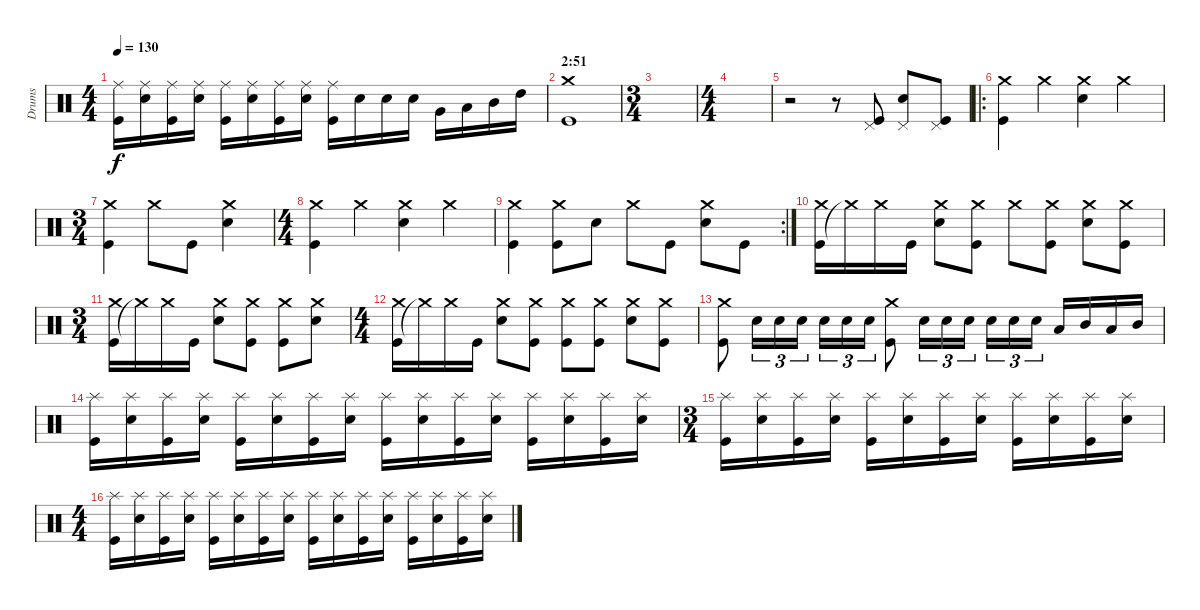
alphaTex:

\track ("Drums" "Drums") {instrument percussion}
\staff {score}
\articulation defaults
\ts (4 4)
\tempo 130
\clef neutral
\ks c
("Kick (hit)" "Ride (middle)").16{dy f} ("Electric Snare (hit)" "Ride (middle)").16 ("Kick (hit)" "Ride (middle)").16 ("Electric Snare (hit)" "Ride (middle)").16 ("Kick (hit)" "Ride (middle)").16 ("Electric Snare (hit)" "Ride (middle)").16 ("Kick (hit)" "Ride (middle)").16 ("Electric Snare (hit)" "Ride (middle)").16 ("Kick (hit)" "Ride (middle)").16 "Electric Snare (hit)".16 "Electric Snare (hit)".16 "Electric Snare (hit)".16 "Very Low Tom (hit)".16 "Low Tom (hit)".16 "Mid Tom (hit)".16 "High Tom (hit)".16 |
\section ("" "2:51")
("Kick (hit)" "Crash medium (hit)").1 |
\ts (3 4)
|
\ts (4 4)
|
r.2 r.8 ("Kick (hit)" "Pedal Hi-Hat (hit)").8 ("Electric Snare (hit)" "Pedal Hi-Hat (hit)").8 ("Kick (hit)" "Pedal Hi-Hat (hit)").8 |
\ro
("Kick (hit)" "Crash medium (hit)").4 "Crash medium (hit)".4 ("Electric Snare (hit)" "Crash medium (hit)").4 "Crash medium (hit)".4 |
\ts (3 4)
("Kick (hit)" "Crash medium (hit)").4 "Crash medium (hit)".8 "Kick (hit)".8 ("Electric Snare (hit)" "Crash medium (hit)").4 |
\ts (4 4)
("Kick (hit)" "Crash medium (hit)").4 "Crash medium (hit)".4 ("Electric Snare (hit)" "Crash medium (hit)").4 "Crash medium (hit)".4 |
\rc 2
("Kick (hit)" "Crash medium (hit)").4 ("Kick (hit)" "Crash medium (hit)").8 "Electric Snare (hit)".8 "Crash medium (hit)".8 "Kick (hit)".8 ("Electric Snare (hit)" "Crash medium (hit)").8 "Kick (hit)".8 |
("Kick (hit)" "Crash medium (hit)").16 "Crash medium (hit)"{t}.16 "Crash medium (hit)".16 "Kick (hit)".16 ("Electric Snare (hit)" "Crash medium (hit)").8 ("Kick (hit)" "Crash medium (hit)").8 "Crash medium (hit)".8 ("Kick (hit)" "Crash medium (hit)").8 ("Electric Snare (hit)" "Crash medium (hit)").8 ("Kick (hit)" "Crash medium (hit)").8 |
\ts (3 4)
("Kick (hit)" "Crash medium (hit)").16 "Crash medium (hit)"{t}.16 "Crash medium (hit)".16 "Kick (hit)".16 ("Electric Snare (hit)" "Crash medium (hit)").8 ("Kick (hit)" "Crash medium (hit)").8 ("Kick (hit)" "Crash medium (hit)").8 ("Electric Snare (hit)" "Crash medium (hit)").8 |
\ts (4 4)
("Kick (hit)" "Crash medium (hit)").16 "Crash medium (hit)"{t}.16 "Crash medium (hit)".16 "Kick (hit)".16 ("Electric Snare (hit)" "Crash medium (hit)").8 ("Kick (hit)" "Crash medium (hit)").8 ("Kick (hit)" "Crash medium (hit)").8 ("Kick (hit)" "Crash medium (hit)").8 ("Electric Snare (hit)" "Crash medium (hit)").8 ("Kick (hit)" "Crash medium (hit)").8 |
("Kick (hit)" "Crash medium (hit)").8 "Electric Snare (hit)".16{tu (3 2)} "Electric Snare (hit)".16{tu (3 2)} "Electric Snare (hit)".16{tu (3 2)} "Electric Snare (hit)".16{tu (3 2)} "Electric Snare (hit)".16{tu (3 2)} "Electric Snare (hit)".16{tu (3 2)} ("Kick (hit)" "Crash medium (hit)").8 "Electric Snare (hit)".16{tu (3 2)} "Electric Snare (hit)".16{tu (3 2)} "Electric Snare (hit)".16{tu (3 2)} "Electric Snare (hit)".16{tu (3 2)} "Electric Snare (hit)".16{tu (3 2)} "Electric Snare (hit)".16{tu (3 2)} "Low Tom (hit)".16 "Mid Tom (hit)".16 "Low Tom (hit)".16 "Mid Tom (hit)".16 |
("Kick (hit)" "Splash (hit)").16 ("Electric Snare (hit)" "Splash (hit)").16 ("Kick (hit)" "Splash (hit)").16 ("Electric Snare (hit)" "Splash (hit)").16 ("Kick (hit)" "Splash (hit)").16 ("Electric Snare (hit)" "Splash (hit)").16 ("Kick (hit)" "Splash (hit)").16 ("Electric Snare (hit)" "Splash (hit)").16 ("Kick (hit)" "Splash (hit)").16 ("Electric Snare (hit)" "Splash (hit)").16 ("Kick (hit)" "Splash (hit)").16 ("Electric Snare (hit)" "Splash (hit)").16 ("Kick (hit)" "Splash (hit)").16 ("Electric Snare (hit)" "Splash (hit)").16 ("Kick (hit)" "Splash (hit)").16 ("Electric Snare (hit)" "Splash (hit)").16 |
\ts (3 4)
("Kick (hit)" "Splash (hit)").16 ("Electric Snare (hit)" "Splash (hit)").16 ("Kick (hit)" "Splash (hit)").16 ("Electric Snare (hit)" "Splash (hit)").16 ("Kick (hit)" "Splash (hit)").16 ("Electric Snare (hit)" "Splash (hit)").16 ("Kick (hit)" "Splash (hit)").16 ("Electric Snare (hit)" "Splash (hit)").16 ("Kick (hit)" "Splash (hit)").16 ("Electric Snare (hit)" "Splash (hit)").16 ("Kick (hit)" "Splash (hit)").16 ("Electric Snare (hit)" "Splash (hit)").16 |
\ts (4 4)
("Kick (hit)" "Splash (hit)").16 ("Electric Snare (hit)" "Splash (hit)").16 ("Kick (hit)" "Splash (hit)").16 ("Electric Snare (hit)" "Splash (hit)").16 ("Kick (hit)" "Splash (hit)").16 ("Electric Snare (hit)" "Splash (hit)").16 ("Kick (hit)" "Splash (hit)").16 ("Electric Snare (hit)" "Splash (hit)").16 ("Kick (hit)" "Splash (hit)").16 ("Electric Snare (hit)" "Splash (hit)").16 ("Kick (hit)" "Splash (hit)").16 ("Electric Snare (hit)" "Splash (hit)").16 ("Kick (hit)" "Splash (hit)").16 ("Electric Snare (hit)" "Splash (hit)").16 ("Kick (hit)" "Splash (hit)").16 ("Electric Snare (hit)" "Splash (hit)").16
